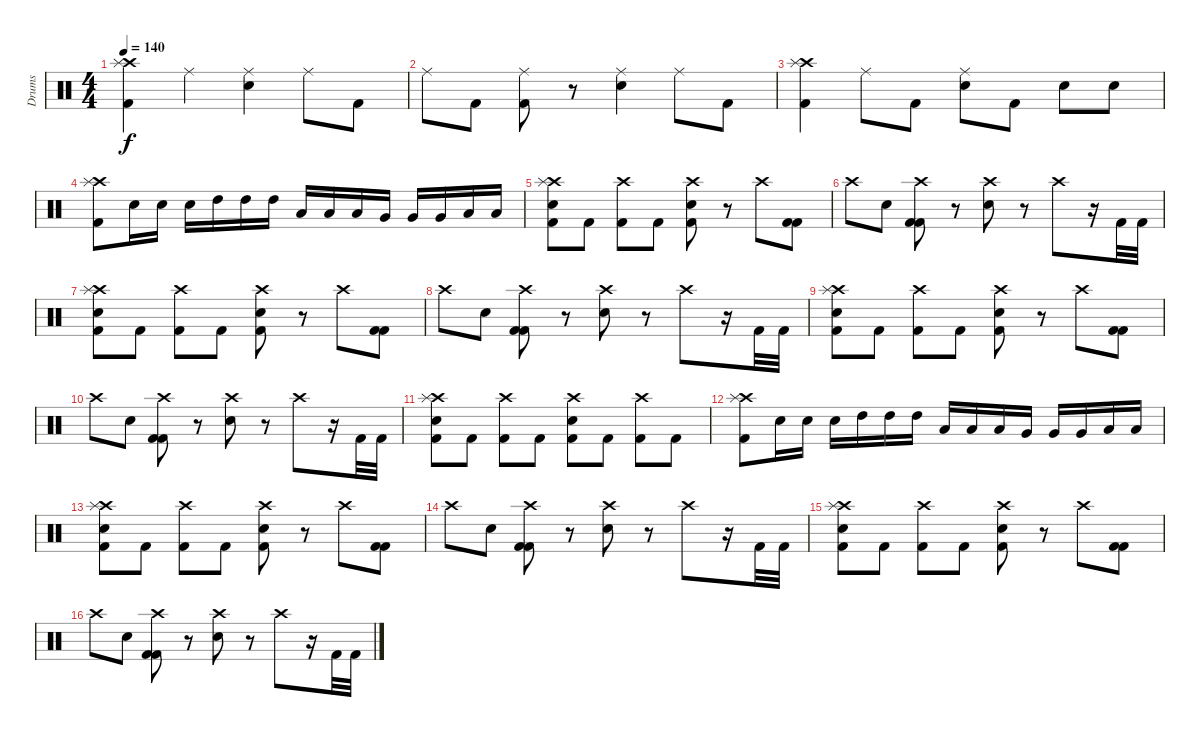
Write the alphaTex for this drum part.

\track ("Drums" "Drums") {instrument percussion}
\staff {score}
\articulation defaults
\ts (4 4)
\tempo 140
\clef neutral
\ks c
("Crash high (hit)" "Splash (hit)" "Kick (hit) 2").4{dy f} "Ride (middle)".4 ("Ride (middle)" "Electric Snare (hit)").4 "Ride (middle)".8 "Kick (hit) 2".8 |
"Ride (middle)".8 "Kick (hit) 2".8 ("Ride (middle)" "Kick (hit) 2").8 r.8 ("Ride (middle)" "Electric Snare (hit)").4 "Ride (middle)".8 "Kick (hit) 2".8 |
("Crash high (hit)" "Splash (hit)" "Kick (hit) 2").4 "Ride (middle)".8 "Kick (hit) 2".8 ("Ride (middle)" "Electric Snare (hit)").8 "Kick (hit) 2".8 "Electric Snare (hit)".8 "Electric Snare (hit)".8 |
("Crash high (hit)" "Splash (hit)" "Kick (hit) 2").8 "Electric Snare (hit)".16 "Electric Snare (hit)".16 "Electric Snare (hit)".16 "High Tom (hit)".16 "High Tom (hit)".16 "High Tom (hit)".16 "Low Tom (hit)".16 "Low Tom (hit)".16 "Low Tom (hit)".16 "Very Low Tom (hit)".16 "Very Low Tom (hit)".16 "Very Low Tom (hit)".16 "Low Floor Tom (hit)".16 "Low Floor Tom (hit)".16 |
("Crash high (hit)" "Splash (hit)" "Electric Snare (hit)" "Kick (hit) 2").8 "Kick (hit) 2".8 ("Crash high (hit)" "Kick (hit) 2").8 "Kick (hit) 2".8 ("Crash high (hit)" "Electric Snare (hit)" "Kick (hit) 2").8 r.8 "Crash high (hit)".8 ("Kick (hit) 2" "Kick (hit) 2").8 |
"Crash high (hit)".8 "Electric Snare (hit)".8 ("Crash high (hit)" "Kick (hit) 2" "Kick (hit) 2").8 r.8 ("Crash high (hit)" "Electric Snare (hit)").8 r.8 "Crash high (hit)".8 r.16 "Kick (hit) 2".32 "Kick (hit) 2".32 |
("Crash high (hit)" "Splash (hit)" "Electric Snare (hit)" "Kick (hit) 2").8 "Kick (hit) 2".8 ("Crash high (hit)" "Kick (hit) 2").8 "Kick (hit) 2".8 ("Crash high (hit)" "Electric Snare (hit)" "Kick (hit) 2").8 r.8 "Crash high (hit)".8 ("Kick (hit) 2" "Kick (hit) 2").8 |
"Crash high (hit)".8 "Electric Snare (hit)".8 ("Crash high (hit)" "Kick (hit) 2" "Kick (hit) 2").8 r.8 ("Crash high (hit)" "Electric Snare (hit)").8 r.8 "Crash high (hit)".8 r.16 "Kick (hit) 2".32 "Kick (hit) 2".32 |
("Crash high (hit)" "Splash (hit)" "Electric Snare (hit)" "Kick (hit) 2").8 "Kick (hit) 2".8 ("Crash high (hit)" "Kick (hit) 2").8 "Kick (hit) 2".8 ("Crash high (hit)" "Electric Snare (hit)" "Kick (hit) 2").8 r.8 "Crash high (hit)".8 ("Kick (hit) 2" "Kick (hit) 2").8 |
"Crash high (hit)".8 "Electric Snare (hit)".8 ("Crash high (hit)" "Kick (hit) 2" "Kick (hit) 2").8 r.8 ("Crash high (hit)" "Electric Snare (hit)").8 r.8 "Crash high (hit)".8 r.16 "Kick (hit) 2".32 "Kick (hit) 2".32 |
("Crash high (hit)" "Splash (hit)" "Electric Snare (hit)" "Kick (hit) 2").8 "Kick (hit) 2".8 ("Crash high (hit)" "Kick (hit) 2").8 "Kick (hit) 2".8 ("Crash high (hit)" "Electric Snare (hit)" "Kick (hit) 2").8 "Kick (hit) 2".8 ("Crash high (hit)" "Kick (hit) 2").8 "Kick (hit) 2".8 |
("Crash high (hit)" "Splash (hit)" "Kick (hit) 2").8 "Electric Snare (hit)".16 "Electric Snare (hit)".16 "Electric Snare (hit)".16 "High Tom (hit)".16 "High Tom (hit)".16 "High Tom (hit)".16 "Low Tom (hit)".16 "Low Tom (hit)".16 "Low Tom (hit)".16 "Very Low Tom (hit)".16 "Very Low Tom (hit)".16 "Very Low Tom (hit)".16 "Low Floor Tom (hit)".16 "Low Floor Tom (hit)".16 |
("Crash high (hit)" "Splash (hit)" "Electric Snare (hit)" "Kick (hit) 2").8 "Kick (hit) 2".8 ("Crash high (hit)" "Kick (hit) 2").8 "Kick (hit) 2".8 ("Crash high (hit)" "Electric Snare (hit)" "Kick (hit) 2").8 r.8 "Crash high (hit)".8 ("Kick (hit) 2" "Kick (hit) 2").8 |
"Crash high (hit)".8 "Electric Snare (hit)".8 ("Crash high (hit)" "Kick (hit) 2" "Kick (hit) 2").8 r.8 ("Crash high (hit)" "Electric Snare (hit)").8 r.8 "Crash high (hit)".8 r.16 "Kick (hit) 2".32 "Kick (hit) 2".32 |
("Crash high (hit)" "Splash (hit)" "Electric Snare (hit)" "Kick (hit) 2").8 "Kick (hit) 2".8 ("Crash high (hit)" "Kick (hit) 2").8 "Kick (hit) 2".8 ("Crash high (hit)" "Electric Snare (hit)" "Kick (hit) 2").8 r.8 "Crash high (hit)".8 ("Kick (hit) 2" "Kick (hit) 2").8 |
"Crash high (hit)".8 "Electric Snare (hit)".8 ("Crash high (hit)" "Kick (hit) 2" "Kick (hit) 2").8 r.8 ("Crash high (hit)" "Electric Snare (hit)").8 r.8 "Crash high (hit)".8 r.16 "Kick (hit) 2".32 "Kick (hit) 2".32
